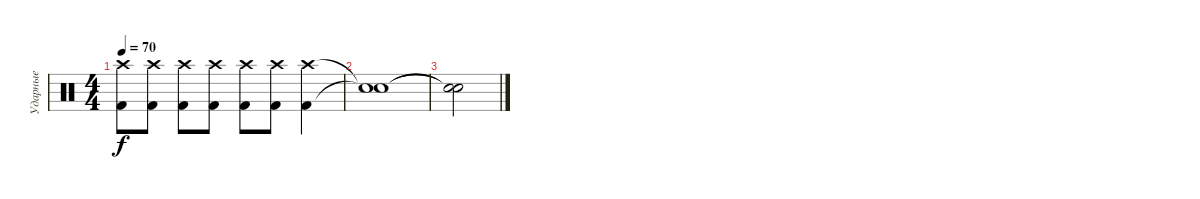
\track ("Ударные" "Ударные") {instrument percussion}
\staff {score}
\articulation defaults
\ts (4 4)
\tempo 70
\clef neutral
\ks c
("Crash high (hit)" "Kick (hit) 2").8{dy f} ("Crash high (hit)" "Kick (hit) 2").8 ("Crash high (hit)" "Kick (hit) 2").8 ("Crash high (hit)" "Kick (hit) 2").8 ("Crash high (hit)" "Kick (hit) 2").8 ("Crash high (hit)" "Kick (hit) 2").8 ("Crash high (hit)" "Kick (hit) 2").4 |
("Snare (hit)"{t} "Snare (hit)"{t}).1 |
("Snare (hit)"{t} "Snare (hit)"{t}).2
